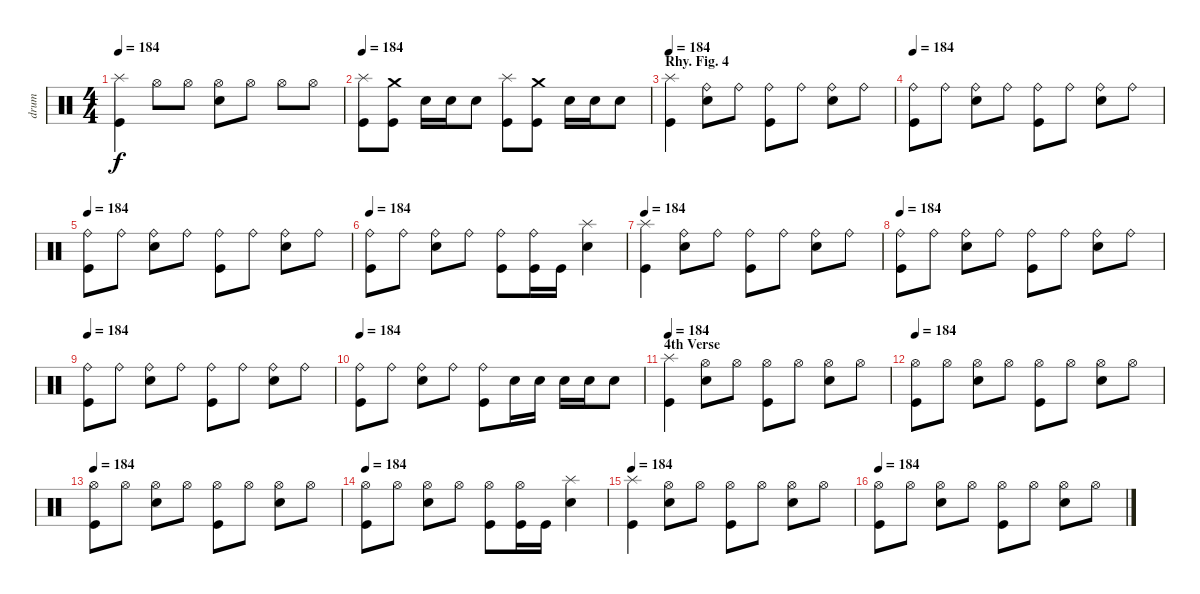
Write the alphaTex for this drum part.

\track ("drum" "drum") {instrument percussion}
\staff {score}
\articulation defaults
\ts (4 4)
\tempo 184
\clef neutral
\ks c
("Kick (hit)" "Splash (hit)").4{dy f} "Hi-Hat (open)".8 "Hi-Hat (open)".8 ("Electric Snare (hit)" "Hi-Hat (open)").8 "Hi-Hat (open)".8 "Hi-Hat (open)".8 "Hi-Hat (open)".8 |
\tempo 184
("Kick (hit)" "Splash (hit)").8 ("Kick (hit)" "Crash medium (hit)").8 "Electric Snare (hit)".16 "Electric Snare (hit)".16 "Electric Snare (hit)".8 ("Kick (hit)" "Splash (hit)").8 ("Kick (hit)" "Crash medium (hit)").8 "Electric Snare (hit)".16 "Electric Snare (hit)".16 "Electric Snare (hit)".8 |
\section ("" "Rhy. Fig. 4")
\tempo 184
("Kick (hit)" "Splash (hit)").4 ("Electric Snare (hit)" "Ride (bell)").8 "Ride (bell)".8 ("Kick (hit)" "Ride (bell)").8 "Ride (bell)".8 ("Electric Snare (hit)" "Ride (bell)").8 "Ride (bell)".8 |
\tempo 184
("Kick (hit)" "Ride (bell)").8 "Ride (bell)".8 ("Electric Snare (hit)" "Ride (bell)").8 "Ride (bell)".8 ("Kick (hit)" "Ride (bell)").8 "Ride (bell)".8 ("Electric Snare (hit)" "Ride (bell)").8 "Ride (bell)".8 |
\tempo 184
("Kick (hit)" "Ride (bell)").8 "Ride (bell)".8 ("Electric Snare (hit)" "Ride (bell)").8 "Ride (bell)".8 ("Kick (hit)" "Ride (bell)").8 "Ride (bell)".8 ("Electric Snare (hit)" "Ride (bell)").8 "Ride (bell)".8 |
\tempo 184
("Kick (hit)" "Ride (bell)").8 "Ride (bell)".8 ("Electric Snare (hit)" "Ride (bell)").8 "Ride (bell)".8 ("Kick (hit)" "Ride (bell)").8 ("Kick (hit)" "Ride (bell)").16 "Kick (hit)".16 ("Electric Snare (hit)" "Splash (hit)").4 |
\tempo 184
("Kick (hit)" "Splash (hit)").4 ("Electric Snare (hit)" "Ride (bell)").8 "Ride (bell)".8 ("Kick (hit)" "Ride (bell)").8 "Ride (bell)".8 ("Electric Snare (hit)" "Ride (bell)").8 "Ride (bell)".8 |
\tempo 184
("Kick (hit)" "Ride (bell)").8 "Ride (bell)".8 ("Electric Snare (hit)" "Ride (bell)").8 "Ride (bell)".8 ("Kick (hit)" "Ride (bell)").8 "Ride (bell)".8 ("Electric Snare (hit)" "Ride (bell)").8 "Ride (bell)".8 |
\tempo 184
("Kick (hit)" "Ride (bell)").8 "Ride (bell)".8 ("Electric Snare (hit)" "Ride (bell)").8 "Ride (bell)".8 ("Kick (hit)" "Ride (bell)").8 "Ride (bell)".8 ("Electric Snare (hit)" "Ride (bell)").8 "Ride (bell)".8 |
\tempo 184
("Kick (hit)" "Ride (bell)").8 "Ride (bell)".8 ("Electric Snare (hit)" "Ride (bell)").8 "Ride (bell)".8 ("Kick (hit)" "Ride (bell)").8 "Electric Snare (hit)".16 "Electric Snare (hit)".16 "Electric Snare (hit)".16 "Electric Snare (hit)".16 "Electric Snare (hit)".8 |
\section ("" "4th Verse")
\tempo 184
("Kick (hit)" "Splash (hit)").4 ("Electric Snare (hit)" "Hi-Hat (open)").8 "Hi-Hat (open)".8 ("Kick (hit)" "Hi-Hat (open)").8 "Hi-Hat (open)".8 ("Electric Snare (hit)" "Hi-Hat (open)").8 "Hi-Hat (open)".8 |
\tempo 184
("Kick (hit)" "Hi-Hat (open)").8 "Hi-Hat (open)".8 ("Electric Snare (hit)" "Hi-Hat (open)").8 "Hi-Hat (open)".8 ("Kick (hit)" "Hi-Hat (open)").8 "Hi-Hat (open)".8 ("Electric Snare (hit)" "Hi-Hat (open)").8 "Hi-Hat (open)".8 |
\tempo 184
("Kick (hit)" "Hi-Hat (open)").8 "Hi-Hat (open)".8 ("Electric Snare (hit)" "Hi-Hat (open)").8 "Hi-Hat (open)".8 ("Kick (hit)" "Hi-Hat (open)").8 "Hi-Hat (open)".8 ("Electric Snare (hit)" "Hi-Hat (open)").8 "Hi-Hat (open)".8 |
\tempo 184
("Kick (hit)" "Hi-Hat (open)").8 "Hi-Hat (open)".8 ("Electric Snare (hit)" "Hi-Hat (open)").8 "Hi-Hat (open)".8 ("Kick (hit)" "Hi-Hat (open)").8 ("Kick (hit)" "Hi-Hat (open)").16 "Kick (hit)".16 ("Electric Snare (hit)" "Splash (hit)").4 |
\tempo 184
("Kick (hit)" "Splash (hit)").4 ("Electric Snare (hit)" "Hi-Hat (open)").8 "Hi-Hat (open)".8 ("Kick (hit)" "Hi-Hat (open)").8 "Hi-Hat (open)".8 ("Electric Snare (hit)" "Hi-Hat (open)").8 "Hi-Hat (open)".8 |
\tempo 184
("Kick (hit)" "Hi-Hat (open)").8 "Hi-Hat (open)".8 ("Electric Snare (hit)" "Hi-Hat (open)").8 "Hi-Hat (open)".8 ("Kick (hit)" "Hi-Hat (open)").8 "Hi-Hat (open)".8 ("Electric Snare (hit)" "Hi-Hat (open)").8 "Hi-Hat (open)".8
